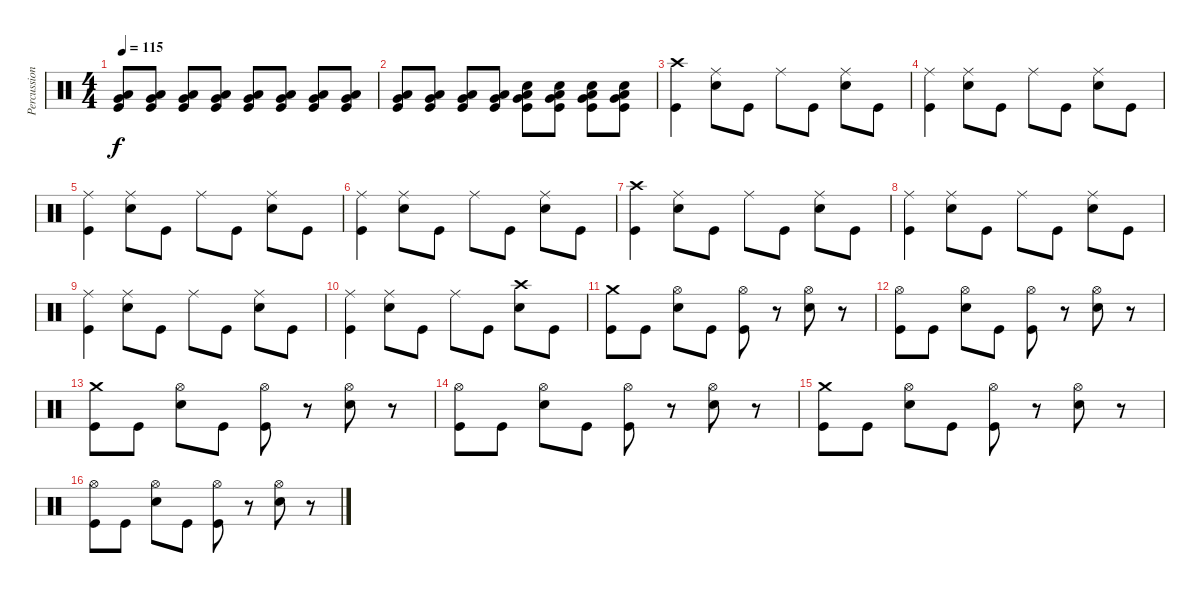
\track ("Percussion" "Percussion") {instrument percussion}
\staff {score}
\articulation defaults
\ts (4 4)
\tempo 115
\clef neutral
\ks c
("Low Floor Tom (hit)" "Very Low Tom (hit)" "Kick (hit)").8{dy f} ("Low Floor Tom (hit)" "Very Low Tom (hit)" "Kick (hit)").8 ("Low Floor Tom (hit)" "Very Low Tom (hit)" "Kick (hit)").8 ("Low Floor Tom (hit)" "Very Low Tom (hit)" "Kick (hit)").8 ("Low Floor Tom (hit)" "Very Low Tom (hit)" "Kick (hit)").8 ("Low Floor Tom (hit)" "Very Low Tom (hit)" "Kick (hit)").8 ("Low Floor Tom (hit)" "Very Low Tom (hit)" "Kick (hit)").8 ("Low Floor Tom (hit)" "Very Low Tom (hit)" "Kick (hit)").8 |
("Low Floor Tom (hit)" "Very Low Tom (hit)" "Kick (hit)").8 ("Low Floor Tom (hit)" "Very Low Tom (hit)" "Kick (hit)").8 ("Low Floor Tom (hit)" "Very Low Tom (hit)" "Kick (hit)").8 ("Low Floor Tom (hit)" "Very Low Tom (hit)" "Kick (hit)").8 ("Low Floor Tom (hit)" "Electric Snare (hit)" "Very Low Tom (hit)" "Kick (hit)").8 ("Low Floor Tom (hit)" "Electric Snare (hit)" "Very Low Tom (hit)" "Kick (hit)").8 ("Low Floor Tom (hit)" "Electric Snare (hit)" "Very Low Tom (hit)" "Kick (hit)").8 ("Low Floor Tom (hit)" "Electric Snare (hit)" "Very Low Tom (hit)" "Kick (hit)").8 |
("Crash high (hit)" "Kick (hit)").4 ("Ride (middle)" "Electric Snare (hit)").8 "Kick (hit)".8 "Ride (middle)".8 "Kick (hit)".8 ("Ride (middle)" "Electric Snare (hit)").8 "Kick (hit)".8 |
("Ride (middle)" "Kick (hit)").4 ("Ride (middle)" "Electric Snare (hit)").8 "Kick (hit)".8 "Ride (middle)".8 "Kick (hit)".8 ("Ride (middle)" "Electric Snare (hit)").8 "Kick (hit)".8 |
("Ride (middle)" "Kick (hit)").4 ("Ride (middle)" "Electric Snare (hit)").8 "Kick (hit)".8 "Ride (middle)".8 "Kick (hit)".8 ("Ride (middle)" "Electric Snare (hit)").8 "Kick (hit)".8 |
("Ride (middle)" "Kick (hit)").4 ("Ride (middle)" "Electric Snare (hit)").8 "Kick (hit)".8 "Ride (middle)".8 "Kick (hit)".8 ("Ride (middle)" "Electric Snare (hit)").8 "Kick (hit)".8 |
("Crash high (hit)" "Kick (hit)").4 ("Ride (middle)" "Electric Snare (hit)").8 "Kick (hit)".8 "Ride (middle)".8 "Kick (hit)".8 ("Ride (middle)" "Electric Snare (hit)").8 "Kick (hit)".8 |
("Ride (middle)" "Kick (hit)").4 ("Ride (middle)" "Electric Snare (hit)").8 "Kick (hit)".8 "Ride (middle)".8 "Kick (hit)".8 ("Ride (middle)" "Electric Snare (hit)").8 "Kick (hit)".8 |
("Ride (middle)" "Kick (hit)").4 ("Ride (middle)" "Electric Snare (hit)").8 "Kick (hit)".8 "Ride (middle)".8 "Kick (hit)".8 ("Ride (middle)" "Electric Snare (hit)").8 "Kick (hit)".8 |
("Ride (middle)" "Kick (hit)").4 ("Ride (middle)" "Electric Snare (hit)").8 "Kick (hit)".8 "Ride (middle)".8 "Kick (hit)".8 ("Crash high (hit)" "Electric Snare (hit)").8 "Kick (hit)".8 |
("Crash medium (hit)" "Kick (hit)").8 "Kick (hit)".8 ("Hi-Hat (open)" "Electric Snare (hit)").8 "Kick (hit)".8 ("Hi-Hat (open)" "Kick (hit)").8 r.8 ("Hi-Hat (open)" "Electric Snare (hit)").8 r.8 |
("Hi-Hat (open)" "Kick (hit)").8 "Kick (hit)".8 ("Hi-Hat (open)" "Electric Snare (hit)").8 "Kick (hit)".8 ("Hi-Hat (open)" "Kick (hit)").8 r.8 ("Hi-Hat (open)" "Electric Snare (hit)").8 r.8 |
("Crash medium (hit)" "Kick (hit)").8 "Kick (hit)".8 ("Hi-Hat (open)" "Electric Snare (hit)").8 "Kick (hit)".8 ("Hi-Hat (open)" "Kick (hit)").8 r.8 ("Hi-Hat (open)" "Electric Snare (hit)").8 r.8 |
("Hi-Hat (open)" "Kick (hit)").8 "Kick (hit)".8 ("Hi-Hat (open)" "Electric Snare (hit)").8 "Kick (hit)".8 ("Hi-Hat (open)" "Kick (hit)").8 r.8 ("Hi-Hat (open)" "Electric Snare (hit)").8 r.8 |
("Crash medium (hit)" "Kick (hit)").8 "Kick (hit)".8 ("Hi-Hat (open)" "Electric Snare (hit)").8 "Kick (hit)".8 ("Hi-Hat (open)" "Kick (hit)").8 r.8 ("Hi-Hat (open)" "Electric Snare (hit)").8 r.8 |
("Hi-Hat (open)" "Kick (hit)").8 "Kick (hit)".8 ("Hi-Hat (open)" "Electric Snare (hit)").8 "Kick (hit)".8 ("Hi-Hat (open)" "Kick (hit)").8 r.8 ("Hi-Hat (open)" "Electric Snare (hit)").8 r.8
